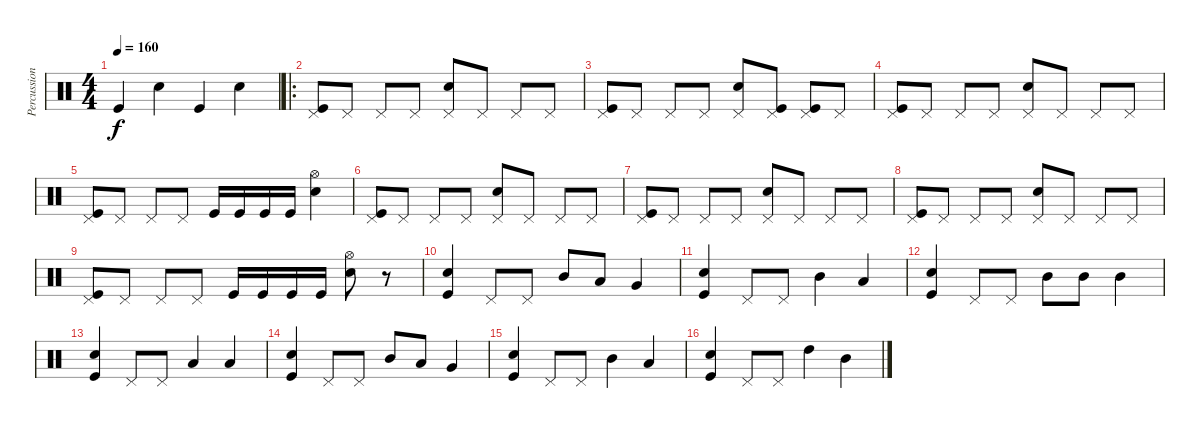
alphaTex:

\track ("Percussion" "Percussion") {instrument percussion}
\staff {score}
\articulation defaults
\ts (4 4)
\tempo 160
\clef neutral
\ks c "Kick (hit)".4{dy f} "Electric Snare (hit)".4 "Kick (hit)".4 "Electric Snare (hit)".4
|
\ro
("Pedal Hi-Hat (hit)" "Kick (hit)").8 "Pedal Hi-Hat (hit)".8 "Pedal Hi-Hat (hit)".8 "Pedal Hi-Hat (hit)".8 ("Pedal Hi-Hat (hit)" "Electric Snare (hit)").8 "Pedal Hi-Hat (hit)".8 "Pedal Hi-Hat (hit)".8 "Pedal Hi-Hat (hit)".8 |
("Pedal Hi-Hat (hit)" "Kick (hit)").8 "Pedal Hi-Hat (hit)".8 "Pedal Hi-Hat (hit)".8 "Pedal Hi-Hat (hit)".8 ("Pedal Hi-Hat (hit)" "Electric Snare (hit)").8 ("Pedal Hi-Hat (hit)" "Kick (hit)").8 ("Pedal Hi-Hat (hit)" "Kick (hit)").8 "Pedal Hi-Hat (hit)".8 |
("Pedal Hi-Hat (hit)" "Kick (hit)").8 "Pedal Hi-Hat (hit)".8 "Pedal Hi-Hat (hit)".8 "Pedal Hi-Hat (hit)".8 ("Pedal Hi-Hat (hit)" "Electric Snare (hit)").8 "Pedal Hi-Hat (hit)".8 "Pedal Hi-Hat (hit)".8 "Pedal Hi-Hat (hit)".8 |
("Pedal Hi-Hat (hit)" "Kick (hit)").8 "Pedal Hi-Hat (hit)".8 "Pedal Hi-Hat (hit)".8 "Pedal Hi-Hat (hit)".8 "Kick (hit)".16 "Kick (hit)".16 "Kick (hit)".16 "Kick (hit)".16 ("Hi-Hat (open)" "Electric Snare (hit)").4 |
("Pedal Hi-Hat (hit)" "Kick (hit)").8 "Pedal Hi-Hat (hit)".8 "Pedal Hi-Hat (hit)".8 "Pedal Hi-Hat (hit)".8 ("Pedal Hi-Hat (hit)" "Electric Snare (hit)").8 "Pedal Hi-Hat (hit)".8 "Pedal Hi-Hat (hit)".8 "Pedal Hi-Hat (hit)".8 |
("Pedal Hi-Hat (hit)" "Kick (hit)").8 "Pedal Hi-Hat (hit)".8 "Pedal Hi-Hat (hit)".8 "Pedal Hi-Hat (hit)".8 ("Pedal Hi-Hat (hit)" "Electric Snare (hit)").8 "Pedal Hi-Hat (hit)".8 "Pedal Hi-Hat (hit)".8 "Pedal Hi-Hat (hit)".8 |
("Pedal Hi-Hat (hit)" "Kick (hit)").8 "Pedal Hi-Hat (hit)".8 "Pedal Hi-Hat (hit)".8 "Pedal Hi-Hat (hit)".8 ("Pedal Hi-Hat (hit)" "Electric Snare (hit)").8 "Pedal Hi-Hat (hit)".8 "Pedal Hi-Hat (hit)".8 "Pedal Hi-Hat (hit)".8 |
("Pedal Hi-Hat (hit)" "Kick (hit)").8 "Pedal Hi-Hat (hit)".8 "Pedal Hi-Hat (hit)".8 "Pedal Hi-Hat (hit)".8 "Kick (hit)".16 "Kick (hit)".16 "Kick (hit)".16 "Kick (hit)".16 ("Hi-Hat (open)" "Electric Snare (hit)").8 r.8 |
("Electric Snare (hit)" "Kick (hit)").4 "Pedal Hi-Hat (hit)".8 "Pedal Hi-Hat (hit)".8 "Mid Tom (hit)".8 "Low Tom (hit)".8 "Very Low Tom (hit)".4 |
("Electric Snare (hit)" "Kick (hit)").4 "Pedal Hi-Hat (hit)".8 "Pedal Hi-Hat (hit)".8 "Mid Tom (hit)".4 "Low Tom (hit)".4 |
("Electric Snare (hit)" "Kick (hit)").4 "Pedal Hi-Hat (hit)".8 "Pedal Hi-Hat (hit)".8 "Mid Tom (hit)".8 "Mid Tom (hit)".8 "Mid Tom (hit)".4 |
("Electric Snare (hit)" "Kick (hit)").4 "Pedal Hi-Hat (hit)".8 "Pedal Hi-Hat (hit)".8 "Low Tom (hit)".4 "Low Tom (hit)".4 |
("Electric Snare (hit)" "Kick (hit)").4 "Pedal Hi-Hat (hit)".8 "Pedal Hi-Hat (hit)".8 "Mid Tom (hit)".8 "Low Tom (hit)".8 "Very Low Tom (hit)".4 |
("Electric Snare (hit)" "Kick (hit)").4 "Pedal Hi-Hat (hit)".8 "Pedal Hi-Hat (hit)".8 "Mid Tom (hit)".4 "Low Tom (hit)".4 |
("Electric Snare (hit)" "Kick (hit)").4 "Pedal Hi-Hat (hit)".8 "Pedal Hi-Hat (hit)".8 "High Tom (hit)".4 "Mid Tom (hit)".4
